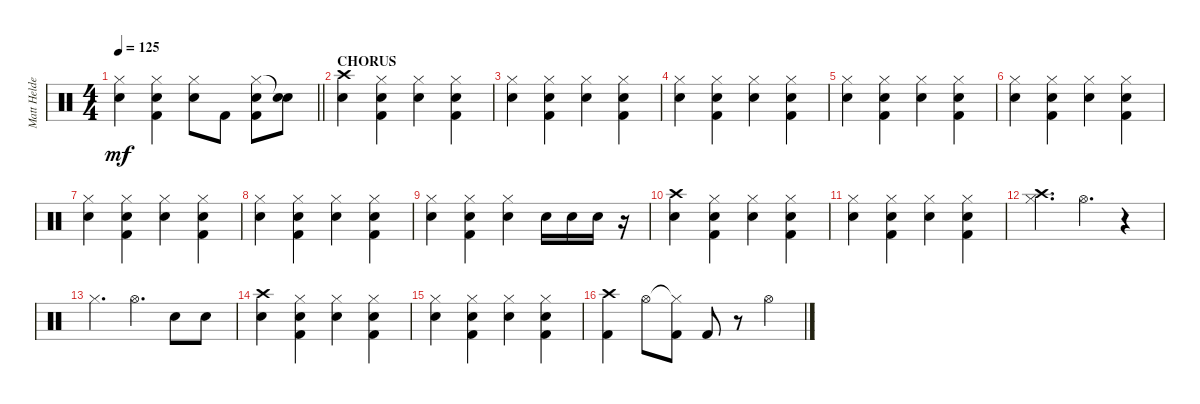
\track ("Matt Helders" "Matt Helde") {instrument percussion}
\staff {score}
\articulation defaults
\ts (4 4)
\tempo 125
\clef neutral
\barLineRight lightlight
\ks c
("Hi-Hat (closed)" "Electric Snare (hit)").4{dy mf} ("Hi-Hat (closed)" "Electric Snare (hit)" "Kick (hit) 2").4 ("Hi-Hat (closed)" "Electric Snare (hit)").8 "Kick (hit) 2".8 ("Hi-Hat (closed)" "Electric Snare (hit)" "Kick (hit) 2").8 ("Snare (hit)"{t} "Electric Snare (hit)").8 |
\section ("" "CHORUS")
("Crash high (hit)" "Electric Snare (hit)").4 ("Hi-Hat (closed)" "Electric Snare (hit)" "Kick (hit) 2").4 ("Hi-Hat (closed)" "Electric Snare (hit)").4 ("Hi-Hat (closed)" "Electric Snare (hit)" "Kick (hit) 2").4 |
("Hi-Hat (closed)" "Electric Snare (hit)").4 ("Hi-Hat (closed)" "Electric Snare (hit)" "Kick (hit) 2").4 ("Hi-Hat (closed)" "Electric Snare (hit)").4 ("Hi-Hat (closed)" "Electric Snare (hit)" "Kick (hit) 2").4 |
("Hi-Hat (closed)" "Electric Snare (hit)").4 ("Hi-Hat (closed)" "Electric Snare (hit)" "Kick (hit) 2").4 ("Hi-Hat (closed)" "Electric Snare (hit)").4 ("Hi-Hat (closed)" "Electric Snare (hit)" "Kick (hit) 2").4 |
("Hi-Hat (closed)" "Electric Snare (hit)").4 ("Hi-Hat (closed)" "Electric Snare (hit)" "Kick (hit) 2").4 ("Hi-Hat (closed)" "Electric Snare (hit)").4 ("Hi-Hat (closed)" "Electric Snare (hit)" "Kick (hit) 2").4 |
("Hi-Hat (closed)" "Electric Snare (hit)").4 ("Hi-Hat (closed)" "Electric Snare (hit)" "Kick (hit) 2").4 ("Hi-Hat (closed)" "Electric Snare (hit)").4 ("Hi-Hat (closed)" "Electric Snare (hit)" "Kick (hit) 2").4 |
("Hi-Hat (closed)" "Electric Snare (hit)").4 ("Hi-Hat (closed)" "Electric Snare (hit)" "Kick (hit) 2").4 ("Hi-Hat (closed)" "Electric Snare (hit)").4 ("Hi-Hat (closed)" "Electric Snare (hit)" "Kick (hit) 2").4 |
("Hi-Hat (closed)" "Electric Snare (hit)").4 ("Hi-Hat (closed)" "Electric Snare (hit)" "Kick (hit) 2").4 ("Hi-Hat (closed)" "Electric Snare (hit)").4 ("Hi-Hat (closed)" "Electric Snare (hit)" "Kick (hit) 2").4 |
("Hi-Hat (closed)" "Electric Snare (hit)").4 ("Hi-Hat (closed)" "Electric Snare (hit)" "Kick (hit) 2").4 ("Hi-Hat (closed)" "Electric Snare (hit)").4 "Electric Snare (hit)".16 "Electric Snare (hit)".16 "Electric Snare (hit)".16 r.16 |
("Crash high (hit)" "Electric Snare (hit)").4 ("Hi-Hat (closed)" "Electric Snare (hit)" "Kick (hit) 2").4 ("Hi-Hat (closed)" "Electric Snare (hit)").4 ("Hi-Hat (closed)" "Electric Snare (hit)" "Kick (hit) 2").4 |
("Hi-Hat (closed)" "Electric Snare (hit)").4 ("Hi-Hat (closed)" "Electric Snare (hit)" "Kick (hit) 2").4 ("Hi-Hat (closed)" "Electric Snare (hit)").4 ("Hi-Hat (closed)" "Electric Snare (hit)" "Kick (hit) 2").4 |
("Crash high (hit)" "Hi-Hat (closed)").4{d} "Hi-Hat (open)".4{d} r.4 |
"Hi-Hat (closed)".4{d} "Hi-Hat (open)".4{d} "Electric Snare (hit)".8 "Electric Snare (hit)".8 |
("Crash high (hit)" "Electric Snare (hit)").4 ("Hi-Hat (closed)" "Electric Snare (hit)" "Kick (hit) 2").4 ("Hi-Hat (closed)" "Electric Snare (hit)").4 ("Hi-Hat (closed)" "Electric Snare (hit)" "Kick (hit) 2").4 |
("Hi-Hat (closed)" "Electric Snare (hit)").4 ("Hi-Hat (closed)" "Electric Snare (hit)" "Kick (hit) 2").4 ("Hi-Hat (closed)" "Electric Snare (hit)").4 ("Hi-Hat (closed)" "Electric Snare (hit)" "Kick (hit) 2").4 |
("Crash high (hit)" "Kick (hit) 2").4 "Hi-Hat (open)".8 ("Hi-Hat (closed)"{t} "Kick (hit) 2").8 "Kick (hit) 2".8 r.8 "Hi-Hat (open)".4
